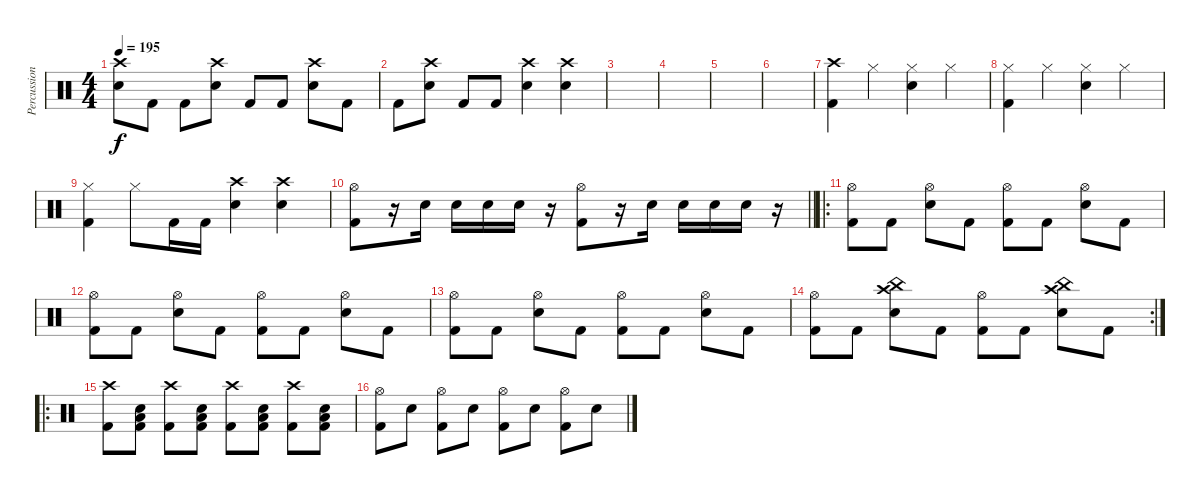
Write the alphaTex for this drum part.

\track ("Percussion" "Percussion") {instrument percussion}
\staff {score}
\articulation defaults
\ts (4 4)
\tempo 195
\clef neutral
\ks c
("Crash high (hit)" "Snare (hit) 2").8{dy f} "Kick (hit) 2".8 "Kick (hit) 2".8 ("Crash high (hit)" "Snare (hit) 2").8 "Kick (hit) 2".8 "Kick (hit) 2".8 ("Crash high (hit)" "Snare (hit) 2").8 "Kick (hit) 2".8 |
"Kick (hit) 2".8 ("Crash high (hit)" "Snare (hit) 2").8 "Kick (hit) 2".8 "Kick (hit) 2".8 ("Crash high (hit)" "Snare (hit) 2").4 ("Crash high (hit)" "Snare (hit) 2").4 |
|
|
|
|
("Crash high (hit)" "Kick (hit) 2").4 "Hi-Hat (closed)".4 ("Hi-Hat (closed)" "Snare (hit) 2").4 "Hi-Hat (closed)".4 |
("Hi-Hat (closed)" "Kick (hit) 2").4 "Hi-Hat (closed)".4 ("Hi-Hat (closed)" "Snare (hit) 2").4 "Hi-Hat (closed)".4 |
("Hi-Hat (closed)" "Kick (hit) 2").4 "Hi-Hat (closed)".8 "Kick (hit) 2".16 "Kick (hit) 2".16 ("Crash high (hit)" "Snare (hit) 2").4 ("Crash high (hit)" "Snare (hit) 2").4 |
\barLineRight lightlight
("Hi-Hat (open)" "Kick (hit) 2").8 r.16 "Snare (hit) 2".16 "Snare (hit) 2".16 "Snare (hit) 2".16 "Snare (hit) 2".16 r.16 ("Hi-Hat (open)" "Kick (hit) 2").8 r.16 "Snare (hit) 2".16 "Snare (hit) 2".16 "Snare (hit) 2".16 "Snare (hit) 2".16 r.16 |
\ro
("Hi-Hat (open)" "Kick (hit) 2").8 "Kick (hit) 2".8 ("Hi-Hat (open)" "Snare (hit) 2").8 "Kick (hit) 2".8 ("Hi-Hat (open)" "Kick (hit) 2").8 "Kick (hit) 2".8 ("Hi-Hat (open)" "Snare (hit) 2").8 "Kick (hit) 2".8 |
("Hi-Hat (open)" "Kick (hit) 2").8 "Kick (hit) 2".8 ("Hi-Hat (open)" "Snare (hit) 2").8 "Kick (hit) 2".8 ("Hi-Hat (open)" "Kick (hit) 2").8 "Kick (hit) 2".8 ("Hi-Hat (open)" "Snare (hit) 2").8 "Kick (hit) 2".8 |
("Hi-Hat (open)" "Kick (hit) 2").8 "Kick (hit) 2".8 ("Hi-Hat (open)" "Snare (hit) 2").8 "Kick (hit) 2".8 ("Hi-Hat (open)" "Kick (hit) 2").8 "Kick (hit) 2".8 ("Hi-Hat (open)" "Snare (hit) 2").8 "Kick (hit) 2".8 |
\rc 2
("Hi-Hat (open)" "Kick (hit) 2").8 "Kick (hit) 2".8 ("Crash high (hit)" "China (hit)" "Snare (hit) 2").8 "Kick (hit) 2".8 ("Hi-Hat (open)" "Kick (hit) 2").8 "Kick (hit) 2".8 ("Crash high (hit)" "China (hit)" "Snare (hit) 2").8 "Kick (hit) 2".8 |
\ro
\section ("" "")
("Crash high (hit)" "Kick (hit) 2").8 ("Low Floor Tom (hit)" "Snare (hit) 2" "Kick (hit) 2").8 ("Crash high (hit)" "Kick (hit) 2").8 ("Low Floor Tom (hit)" "Snare (hit) 2" "Kick (hit) 2").8 ("Crash high (hit)" "Kick (hit) 2").8 ("Low Floor Tom (hit)" "Snare (hit) 2" "Kick (hit) 2").8 ("Crash high (hit)" "Kick (hit) 2").8 ("Low Floor Tom (hit)" "Snare (hit) 2" "Kick (hit) 2").8 |
("Hi-Hat (open)" "Kick (hit) 2").8 "Snare (hit) 2".8 ("Hi-Hat (open)" "Kick (hit) 2").8 "Snare (hit) 2".8 ("Hi-Hat (open)" "Kick (hit) 2").8 "Snare (hit) 2".8 ("Hi-Hat (open)" "Kick (hit) 2").8 "Snare (hit) 2".8
